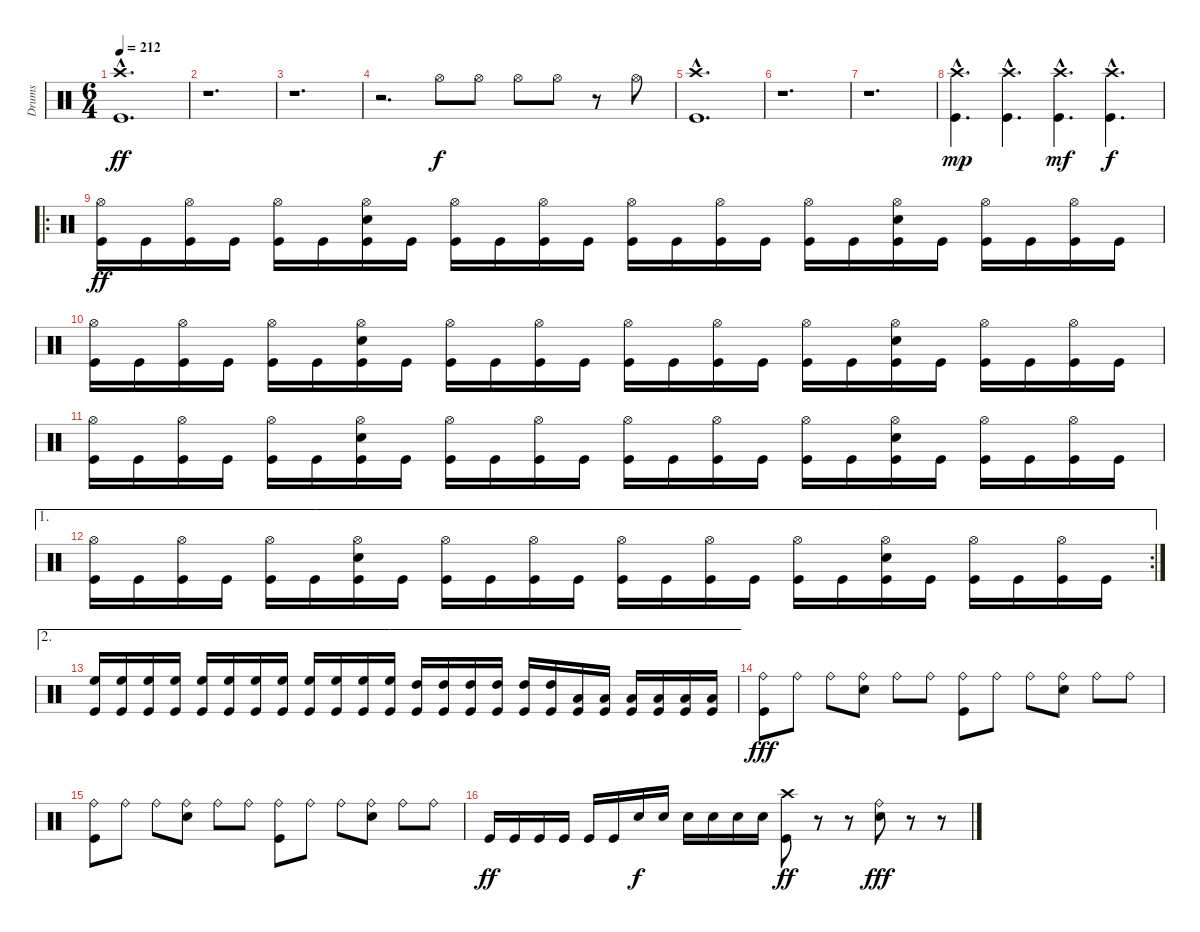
\track ("Drums" "Drums") {instrument percussion}
\staff {score}
\articulation defaults
\ts (6 4)
\tempo 212
\clef neutral
\ks c
("Crash high (hit)"{hac} "Kick (hit)"{hac}).1{d dy ff} |
r.1{d} |
r.1{d} |
r.2{d} "Hi-Hat (open)".8{dy f} "Hi-Hat (open)".8 "Hi-Hat (open)".8 "Hi-Hat (open)".8 r.8 "Hi-Hat (open)".8 |
("Crash high (hit)"{hac} "Kick (hit)"{hac}).1{d} |
r.1{d} |
r.1{d} |
("Crash high (hit)"{hac} "Kick (hit)"{hac}).4{d dy mp} ("Crash high (hit)"{hac} "Kick (hit)"{hac}).4{d} ("Crash high (hit)"{hac} "Kick (hit)"{hac}).4{d dy mf} ("Crash high (hit)"{hac} "Kick (hit)"{hac}).4{d dy f} |
\ro
("Hi-Hat (open)" "Kick (hit)").16{dy ff} "Kick (hit)".16 ("Hi-Hat (open)" "Kick (hit)").16 "Kick (hit)".16 ("Hi-Hat (open)" "Kick (hit)").16 "Kick (hit)".16 ("Hi-Hat (open)" "Snare (hit) 2" "Kick (hit)").16 "Kick (hit)".16 ("Hi-Hat (open)" "Kick (hit)").16 "Kick (hit)".16 ("Hi-Hat (open)" "Kick (hit)").16 "Kick (hit)".16 ("Hi-Hat (open)" "Kick (hit)").16 "Kick (hit)".16 ("Hi-Hat (open)" "Kick (hit)").16 "Kick (hit)".16 ("Hi-Hat (open)" "Kick (hit)").16 "Kick (hit)".16 ("Hi-Hat (open)" "Snare (hit) 2" "Kick (hit)").16 "Kick (hit)".16 ("Hi-Hat (open)" "Kick (hit)").16 "Kick (hit)".16 ("Hi-Hat (open)" "Kick (hit)").16 "Kick (hit)".16 |
("Hi-Hat (open)" "Kick (hit)").16 "Kick (hit)".16 ("Hi-Hat (open)" "Kick (hit)").16 "Kick (hit)".16 ("Hi-Hat (open)" "Kick (hit)").16 "Kick (hit)".16 ("Hi-Hat (open)" "Snare (hit) 2" "Kick (hit)").16 "Kick (hit)".16 ("Hi-Hat (open)" "Kick (hit)").16 "Kick (hit)".16 ("Hi-Hat (open)" "Kick (hit)").16 "Kick (hit)".16 ("Hi-Hat (open)" "Kick (hit)").16 "Kick (hit)".16 ("Hi-Hat (open)" "Kick (hit)").16 "Kick (hit)".16 ("Hi-Hat (open)" "Kick (hit)").16 "Kick (hit)".16 ("Hi-Hat (open)" "Snare (hit) 2" "Kick (hit)").16 "Kick (hit)".16 ("Hi-Hat (open)" "Kick (hit)").16 "Kick (hit)".16 ("Hi-Hat (open)" "Kick (hit)").16 "Kick (hit)".16 |
("Hi-Hat (open)" "Kick (hit)").16 "Kick (hit)".16 ("Hi-Hat (open)" "Kick (hit)").16 "Kick (hit)".16 ("Hi-Hat (open)" "Kick (hit)").16 "Kick (hit)".16 ("Hi-Hat (open)" "Snare (hit) 2" "Kick (hit)").16 "Kick (hit)".16 ("Hi-Hat (open)" "Kick (hit)").16 "Kick (hit)".16 ("Hi-Hat (open)" "Kick (hit)").16 "Kick (hit)".16 ("Hi-Hat (open)" "Kick (hit)").16 "Kick (hit)".16 ("Hi-Hat (open)" "Kick (hit)").16 "Kick (hit)".16 ("Hi-Hat (open)" "Kick (hit)").16 "Kick (hit)".16 ("Hi-Hat (open)" "Snare (hit) 2" "Kick (hit)").16 "Kick (hit)".16 ("Hi-Hat (open)" "Kick (hit)").16 "Kick (hit)".16 ("Hi-Hat (open)" "Kick (hit)").16 "Kick (hit)".16 |
\ae 1
\rc 2
("Hi-Hat (open)" "Kick (hit)").16 "Kick (hit)".16 ("Hi-Hat (open)" "Kick (hit)").16 "Kick (hit)".16 ("Hi-Hat (open)" "Kick (hit)").16 "Kick (hit)".16 ("Hi-Hat (open)" "Snare (hit) 2" "Kick (hit)").16 "Kick (hit)".16 ("Hi-Hat (open)" "Kick (hit)").16 "Kick (hit)".16 ("Hi-Hat (open)" "Kick (hit)").16 "Kick (hit)".16 ("Hi-Hat (open)" "Kick (hit)").16 "Kick (hit)".16 ("Hi-Hat (open)" "Kick (hit)").16 "Kick (hit)".16 ("Hi-Hat (open)" "Kick (hit)").16 "Kick (hit)".16 ("Hi-Hat (open)" "Snare (hit) 2" "Kick (hit)").16 "Kick (hit)".16 ("Hi-Hat (open)" "Kick (hit)").16 "Kick (hit)".16 ("Hi-Hat (open)" "Kick (hit)").16 "Kick (hit)".16 |
\ae 2
("High Floor Tom (hit)" "Kick (hit)").16 ("High Floor Tom (hit)" "Kick (hit)").16 ("High Floor Tom (hit)" "Kick (hit)").16 ("High Floor Tom (hit)" "Kick (hit)").16 ("High Floor Tom (hit)" "Kick (hit)").16 ("High Floor Tom (hit)" "Kick (hit)").16 ("High Floor Tom (hit)" "Kick (hit)").16 ("High Floor Tom (hit)" "Kick (hit)").16 ("High Floor Tom (hit)" "Kick (hit)").16 ("High Floor Tom (hit)" "Kick (hit)").16 ("High Floor Tom (hit)" "Kick (hit)").16 ("High Floor Tom (hit)" "Kick (hit)").16 ("High Tom (hit)" "Kick (hit)").16 ("High Tom (hit)" "Kick (hit)").16 ("High Tom (hit)" "Kick (hit)").16 ("High Tom (hit)" "Kick (hit)").16 ("High Tom (hit)" "Kick (hit)").16 ("High Tom (hit)" "Kick (hit)").16 ("Low Tom (hit)" "Kick (hit)").16 ("Low Tom (hit)" "Kick (hit)").16 ("Low Tom (hit)" "Kick (hit)").16 ("Low Tom (hit)" "Kick (hit)").16 ("Low Tom (hit)" "Kick (hit)").16 ("Low Tom (hit)" "Kick (hit)").16 |
("Ride (bell)" "Kick (hit)").8{dy fff} "Ride (bell)".8 "Ride (bell)".8 ("Ride (bell)" "Snare (hit) 2").8 "Ride (bell)".8 "Ride (bell)".8 ("Ride (bell)" "Kick (hit)").8 "Ride (bell)".8 "Ride (bell)".8 ("Ride (bell)" "Snare (hit) 2").8 "Ride (bell)".8 "Ride (bell)".8 |
("Ride (bell)" "Kick (hit)").8 "Ride (bell)".8 "Ride (bell)".8 ("Ride (bell)" "Snare (hit) 2").8 "Ride (bell)".8 "Ride (bell)".8 ("Ride (bell)" "Kick (hit)").8 "Ride (bell)".8 "Ride (bell)".8 ("Ride (bell)" "Snare (hit) 2").8 "Ride (bell)".8 "Ride (bell)".8 |
"Kick (hit)".16{dy ff} "Kick (hit)".16 "Kick (hit)".16 "Kick (hit)".16 "Kick (hit)".16 "Kick (hit)".16 "Snare (hit) 2".16{dy f} "Snare (hit) 2".16 "Snare (hit) 2".16 "Snare (hit) 2".16 "Snare (hit) 2".16 "Snare (hit) 2".16 ("Crash high (hit)" "Kick (hit)").8{dy ff} r.8 r.8 ("Ride (bell)" "Snare (hit) 2").8{dy fff} r.8 r.8
